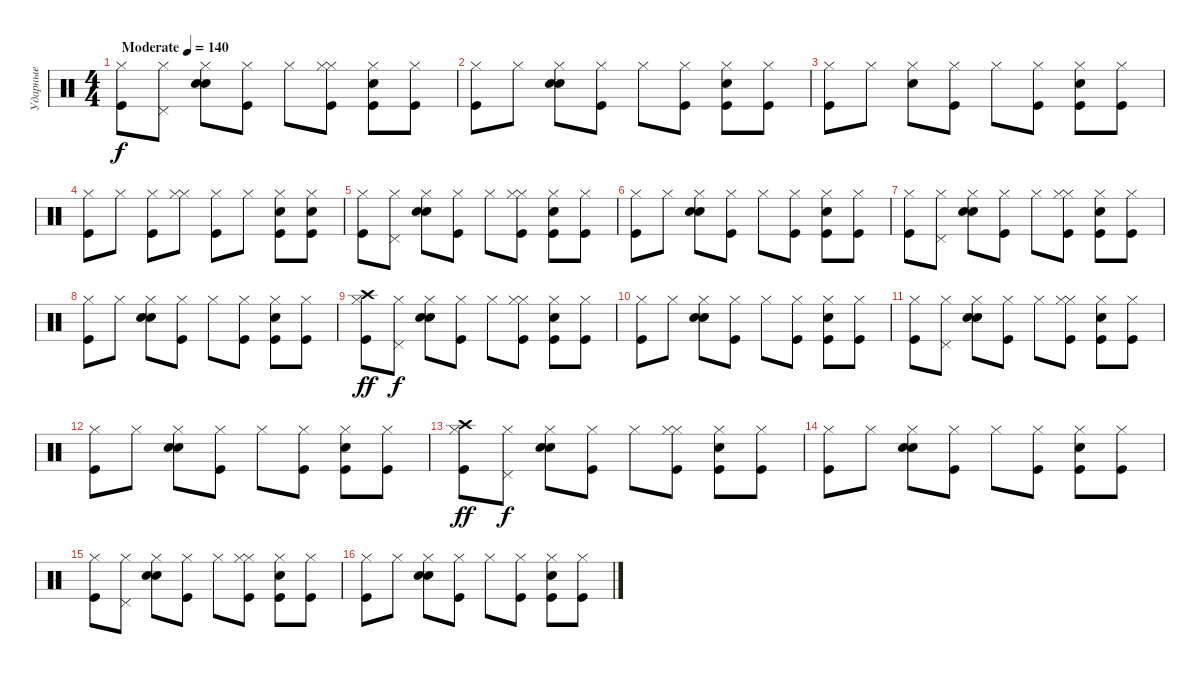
\track ("Ударные" "Ударные") {instrument percussion}
\staff {score}
\articulation defaults
\ts (4 4)
\tempo (140 "Moderate")
\clef neutral
\ks c
("Hi-Hat (closed)" "Kick (hit)").8{dy f} ("Hi-Hat (closed)" "Pedal Hi-Hat (hit)").8 ("Hi-Hat (closed)" "Snare (hit) 2" "Snare (hit) 2").8 ("Hi-Hat (closed)" "Kick (hit)").8 "Hi-Hat (closed)".8 ("Hi-Hat (closed)" "Hi-Hat (closed)" "Kick (hit)").8 ("Hi-Hat (closed)" "Snare (hit) 2" "Kick (hit)").8 ("Hi-Hat (closed)" "Kick (hit)").8 |
("Hi-Hat (closed)" "Kick (hit)").8 "Hi-Hat (closed)".8 ("Hi-Hat (closed)" "Snare (hit) 2" "Snare (hit) 2").8 ("Hi-Hat (closed)" "Kick (hit)").8 "Hi-Hat (closed)".8 ("Hi-Hat (closed)" "Kick (hit)").8 ("Hi-Hat (closed)" "Snare (hit) 2" "Kick (hit)").8 ("Hi-Hat (closed)" "Kick (hit)").8 |
("Hi-Hat (closed)" "Kick (hit)").8 "Hi-Hat (closed)".8 ("Hi-Hat (closed)" "Snare (hit) 2").8 ("Hi-Hat (closed)" "Kick (hit)").8 "Hi-Hat (closed)".8 ("Hi-Hat (closed)" "Kick (hit)").8 ("Hi-Hat (closed)" "Snare (hit) 2" "Kick (hit)").8 ("Hi-Hat (closed)" "Kick (hit)").8 |
("Hi-Hat (closed)" "Kick (hit)").8 "Hi-Hat (closed)".8 ("Hi-Hat (closed)" "Kick (hit)").8 ("Hi-Hat (closed)" "Hi-Hat (closed)").8 ("Hi-Hat (closed)" "Kick (hit)").8 "Hi-Hat (closed)".8 ("Hi-Hat (closed)" "Snare (hit) 2" "Kick (hit)").8 ("Hi-Hat (closed)" "Snare (hit) 2" "Kick (hit)").8 |
("Hi-Hat (closed)" "Kick (hit)").8 ("Hi-Hat (closed)" "Pedal Hi-Hat (hit)").8 ("Hi-Hat (closed)" "Snare (hit) 2" "Snare (hit) 2").8 ("Hi-Hat (closed)" "Kick (hit)").8 "Hi-Hat (closed)".8 ("Hi-Hat (closed)" "Hi-Hat (closed)" "Kick (hit)").8 ("Hi-Hat (closed)" "Snare (hit) 2" "Kick (hit)").8 ("Hi-Hat (closed)" "Kick (hit)").8 |
("Hi-Hat (closed)" "Kick (hit)").8 "Hi-Hat (closed)".8 ("Hi-Hat (closed)" "Snare (hit) 2" "Snare (hit) 2").8 ("Hi-Hat (closed)" "Kick (hit)").8 "Hi-Hat (closed)".8 ("Hi-Hat (closed)" "Kick (hit)").8 ("Hi-Hat (closed)" "Snare (hit) 2" "Kick (hit)").8 ("Hi-Hat (closed)" "Kick (hit)").8 |
("Hi-Hat (closed)" "Kick (hit)").8 ("Hi-Hat (closed)" "Pedal Hi-Hat (hit)").8 ("Hi-Hat (closed)" "Snare (hit) 2" "Snare (hit) 2").8 ("Hi-Hat (closed)" "Kick (hit)").8 "Hi-Hat (closed)".8 ("Hi-Hat (closed)" "Hi-Hat (closed)" "Kick (hit)").8 ("Hi-Hat (closed)" "Snare (hit) 2" "Kick (hit)").8 ("Hi-Hat (closed)" "Kick (hit)").8 |
("Hi-Hat (closed)" "Kick (hit)").8 "Hi-Hat (closed)".8 ("Hi-Hat (closed)" "Snare (hit) 2" "Snare (hit) 2").8 ("Hi-Hat (closed)" "Kick (hit)").8 "Hi-Hat (closed)".8 ("Hi-Hat (closed)" "Kick (hit)").8 ("Hi-Hat (closed)" "Snare (hit) 2" "Kick (hit)").8 ("Hi-Hat (closed)" "Kick (hit)").8 |
("Crash high (hit)" "Hi-Hat (closed)" "Kick (hit)").8{dy ff} ("Hi-Hat (closed)" "Pedal Hi-Hat (hit)").8{dy f} ("Hi-Hat (closed)" "Snare (hit) 2" "Snare (hit) 2").8 ("Hi-Hat (closed)" "Kick (hit)").8 "Hi-Hat (closed)".8 ("Hi-Hat (closed)" "Hi-Hat (closed)" "Kick (hit)").8 ("Hi-Hat (closed)" "Snare (hit) 2" "Kick (hit)").8 ("Hi-Hat (closed)" "Kick (hit)").8 |
("Hi-Hat (closed)" "Kick (hit)").8 "Hi-Hat (closed)".8 ("Hi-Hat (closed)" "Snare (hit) 2" "Snare (hit) 2").8 ("Hi-Hat (closed)" "Kick (hit)").8 "Hi-Hat (closed)".8 ("Hi-Hat (closed)" "Kick (hit)").8 ("Hi-Hat (closed)" "Snare (hit) 2" "Kick (hit)").8 ("Hi-Hat (closed)" "Kick (hit)").8 |
("Hi-Hat (closed)" "Kick (hit)").8 ("Hi-Hat (closed)" "Pedal Hi-Hat (hit)").8 ("Hi-Hat (closed)" "Snare (hit) 2" "Snare (hit) 2").8 ("Hi-Hat (closed)" "Kick (hit)").8 "Hi-Hat (closed)".8 ("Hi-Hat (closed)" "Hi-Hat (closed)" "Kick (hit)").8 ("Hi-Hat (closed)" "Snare (hit) 2" "Kick (hit)").8 ("Hi-Hat (closed)" "Kick (hit)").8 |
("Hi-Hat (closed)" "Kick (hit)").8 "Hi-Hat (closed)".8 ("Hi-Hat (closed)" "Snare (hit) 2" "Snare (hit) 2").8 ("Hi-Hat (closed)" "Kick (hit)").8 "Hi-Hat (closed)".8 ("Hi-Hat (closed)" "Kick (hit)").8 ("Hi-Hat (closed)" "Snare (hit) 2" "Kick (hit)").8 ("Hi-Hat (closed)" "Kick (hit)").8 |
("Crash high (hit)" "Hi-Hat (closed)" "Kick (hit)").8{dy ff} ("Hi-Hat (closed)" "Pedal Hi-Hat (hit)").8{dy f} ("Hi-Hat (closed)" "Snare (hit) 2" "Snare (hit) 2").8 ("Hi-Hat (closed)" "Kick (hit)").8 "Hi-Hat (closed)".8 ("Hi-Hat (closed)" "Hi-Hat (closed)" "Kick (hit)").8 ("Hi-Hat (closed)" "Snare (hit) 2" "Kick (hit)").8 ("Hi-Hat (closed)" "Kick (hit)").8 |
("Hi-Hat (closed)" "Kick (hit)").8 "Hi-Hat (closed)".8 ("Hi-Hat (closed)" "Snare (hit) 2" "Snare (hit) 2").8 ("Hi-Hat (closed)" "Kick (hit)").8 "Hi-Hat (closed)".8 ("Hi-Hat (closed)" "Kick (hit)").8 ("Hi-Hat (closed)" "Snare (hit) 2" "Kick (hit)").8 ("Hi-Hat (closed)" "Kick (hit)").8 |
("Hi-Hat (closed)" "Kick (hit)").8 ("Hi-Hat (closed)" "Pedal Hi-Hat (hit)").8 ("Hi-Hat (closed)" "Snare (hit) 2" "Snare (hit) 2").8 ("Hi-Hat (closed)" "Kick (hit)").8 "Hi-Hat (closed)".8 ("Hi-Hat (closed)" "Hi-Hat (closed)" "Kick (hit)").8 ("Hi-Hat (closed)" "Snare (hit) 2" "Kick (hit)").8 ("Hi-Hat (closed)" "Kick (hit)").8 |
("Hi-Hat (closed)" "Kick (hit)").8 "Hi-Hat (closed)".8 ("Hi-Hat (closed)" "Snare (hit) 2" "Snare (hit) 2").8 ("Hi-Hat (closed)" "Kick (hit)").8 "Hi-Hat (closed)".8 ("Hi-Hat (closed)" "Kick (hit)").8 ("Hi-Hat (closed)" "Snare (hit) 2" "Kick (hit)").8 ("Hi-Hat (closed)" "Kick (hit)").8
